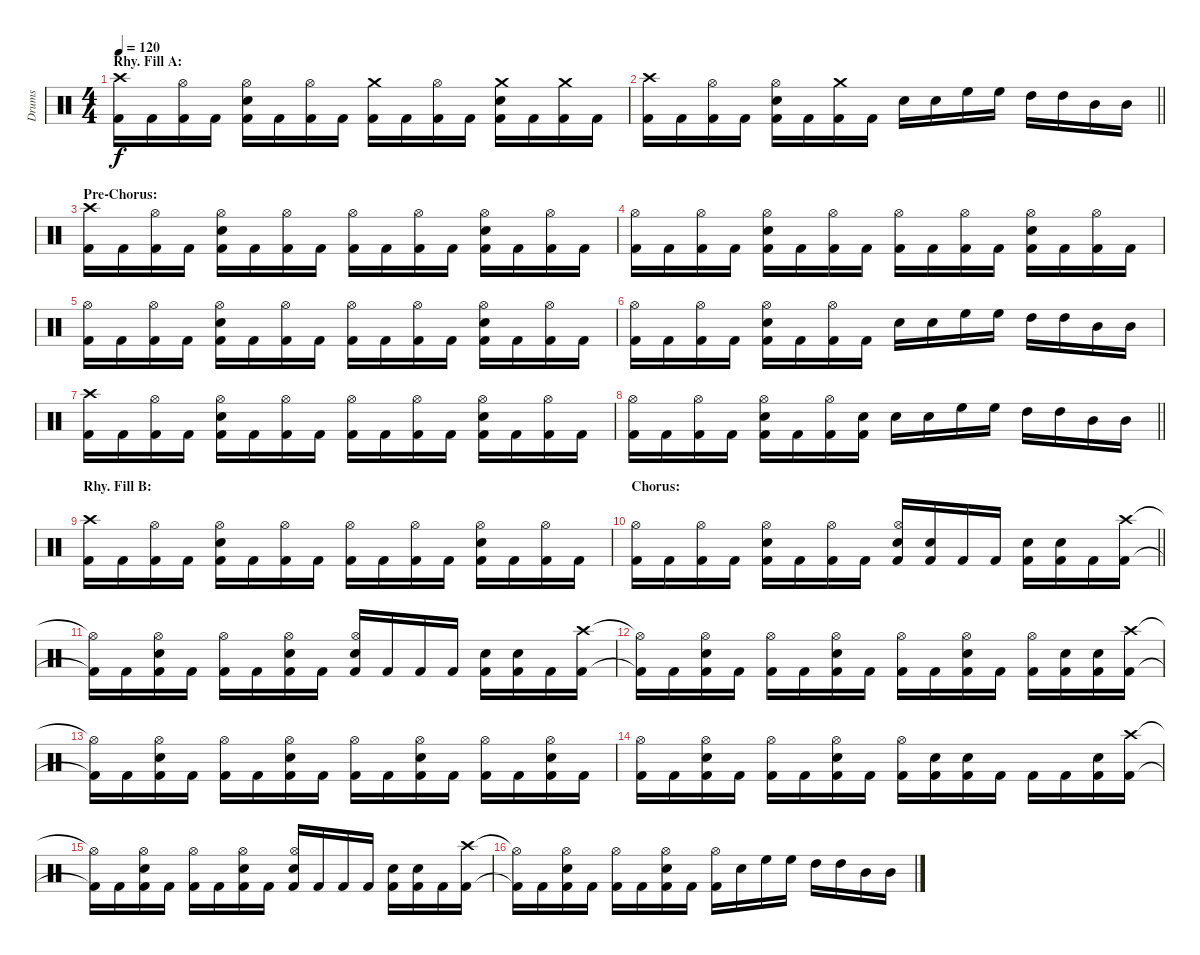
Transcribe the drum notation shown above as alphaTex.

\track ("Drums" "Drums") {instrument percussion}
\staff {score}
\articulation defaults
\ts (4 4)
\section ("" "Rhy. Fill A:")
\tempo 120
\clef neutral
\ks c
("Crash high (hit)" "Kick (hit) 2").16{dy f} "Kick (hit) 2".16 ("Hi-Hat (open)" "Kick (hit) 2").16 "Kick (hit) 2".16 ("Hi-Hat (open)" "Electric Snare (hit)" "Kick (hit) 2").16 "Kick (hit) 2".16 ("Hi-Hat (open)" "Kick (hit) 2").16 "Kick (hit) 2".16 ("Crash medium (hit)" "Kick (hit) 2").16 "Kick (hit) 2".16 ("Hi-Hat (open)" "Kick (hit) 2").16 "Kick (hit) 2".16 ("Crash medium (hit)" "Electric Snare (hit)" "Kick (hit) 2").16 "Kick (hit) 2".16 ("Crash medium (hit)" "Kick (hit) 2").16 "Kick (hit) 2".16 |
\barLineRight lightlight
("Crash high (hit)" "Kick (hit) 2").16 "Kick (hit) 2".16 ("Hi-Hat (open)" "Kick (hit) 2").16 "Kick (hit) 2".16 ("Hi-Hat (open)" "Electric Snare (hit)" "Kick (hit) 2").16 "Kick (hit) 2".16 ("Crash medium (hit)" "Kick (hit) 2").16 "Kick (hit) 2".16 "Electric Snare (hit)".16 "Electric Snare (hit)".16 "High Floor Tom (hit)".16 "High Floor Tom (hit)".16 "High Tom (hit)".16 "High Tom (hit)".16 "Mid Tom (hit)".16 "Mid Tom (hit)".16 |
\section ("" "Pre-Chorus:")
("Crash high (hit)" "Kick (hit) 2").16 "Kick (hit) 2".16 ("Hi-Hat (open)" "Kick (hit) 2").16 "Kick (hit) 2".16 ("Hi-Hat (open)" "Electric Snare (hit)" "Kick (hit) 2").16 "Kick (hit) 2".16 ("Hi-Hat (open)" "Kick (hit) 2").16 "Kick (hit) 2".16 ("Hi-Hat (open)" "Kick (hit) 2").16 "Kick (hit) 2".16 ("Hi-Hat (open)" "Kick (hit) 2").16 "Kick (hit) 2".16 ("Hi-Hat (open)" "Electric Snare (hit)" "Kick (hit) 2").16 "Kick (hit) 2".16 ("Hi-Hat (open)" "Kick (hit) 2").16 "Kick (hit) 2".16 |
("Hi-Hat (open)" "Kick (hit) 2").16 "Kick (hit) 2".16 ("Hi-Hat (open)" "Kick (hit) 2").16 "Kick (hit) 2".16 ("Hi-Hat (open)" "Electric Snare (hit)" "Kick (hit) 2").16 "Kick (hit) 2".16 ("Hi-Hat (open)" "Kick (hit) 2").16 "Kick (hit) 2".16 ("Hi-Hat (open)" "Kick (hit) 2").16 "Kick (hit) 2".16 ("Hi-Hat (open)" "Kick (hit) 2").16 "Kick (hit) 2".16 ("Hi-Hat (open)" "Electric Snare (hit)" "Kick (hit) 2").16 "Kick (hit) 2".16 ("Hi-Hat (open)" "Kick (hit) 2").16 "Kick (hit) 2".16 |
("Hi-Hat (open)" "Kick (hit) 2").16 "Kick (hit) 2".16 ("Hi-Hat (open)" "Kick (hit) 2").16 "Kick (hit) 2".16 ("Hi-Hat (open)" "Electric Snare (hit)" "Kick (hit) 2").16 "Kick (hit) 2".16 ("Hi-Hat (open)" "Kick (hit) 2").16 "Kick (hit) 2".16 ("Hi-Hat (open)" "Kick (hit) 2").16 "Kick (hit) 2".16 ("Hi-Hat (open)" "Kick (hit) 2").16 "Kick (hit) 2".16 ("Hi-Hat (open)" "Electric Snare (hit)" "Kick (hit) 2").16 "Kick (hit) 2".16 ("Hi-Hat (open)" "Kick (hit) 2").16 "Kick (hit) 2".16 |
("Hi-Hat (open)" "Kick (hit) 2").16 "Kick (hit) 2".16 ("Hi-Hat (open)" "Kick (hit) 2").16 "Kick (hit) 2".16 ("Hi-Hat (open)" "Electric Snare (hit)" "Kick (hit) 2").16 "Kick (hit) 2".16 ("Hi-Hat (open)" "Kick (hit) 2").16 "Kick (hit) 2".16 "Electric Snare (hit)".16 "Electric Snare (hit)".16 "High Floor Tom (hit)".16 "High Floor Tom (hit)".16 "High Tom (hit)".16 "High Tom (hit)".16 "Mid Tom (hit)".16 "Mid Tom (hit)".16 |
("Crash high (hit)" "Kick (hit) 2").16 "Kick (hit) 2".16 ("Hi-Hat (open)" "Kick (hit) 2").16 "Kick (hit) 2".16 ("Hi-Hat (open)" "Electric Snare (hit)" "Kick (hit) 2").16 "Kick (hit) 2".16 ("Hi-Hat (open)" "Kick (hit) 2").16 "Kick (hit) 2".16 ("Hi-Hat (open)" "Kick (hit) 2").16 "Kick (hit) 2".16 ("Hi-Hat (open)" "Kick (hit) 2").16 "Kick (hit) 2".16 ("Hi-Hat (open)" "Electric Snare (hit)" "Kick (hit) 2").16 "Kick (hit) 2".16 ("Hi-Hat (open)" "Kick (hit) 2").16 "Kick (hit) 2".16 |
\barLineRight lightlight
("Hi-Hat (open)" "Kick (hit) 2").16 "Kick (hit) 2".16 ("Hi-Hat (open)" "Kick (hit) 2").16 "Kick (hit) 2".16 ("Hi-Hat (open)" "Electric Snare (hit)" "Kick (hit) 2").16 "Kick (hit) 2".16 ("Hi-Hat (open)" "Kick (hit) 2").16 ("Electric Snare (hit)" "Kick (hit) 2").16 "Electric Snare (hit)".16 "Electric Snare (hit)".16 "High Floor Tom (hit)".16 "High Floor Tom (hit)".16 "High Tom (hit)".16 "High Tom (hit)".16 "Mid Tom (hit)".16 "Mid Tom (hit)".16 |
\section ("" "Rhy. Fill B:")
("Crash high (hit)" "Kick (hit) 2").16 "Kick (hit) 2".16 ("Hi-Hat (open)" "Kick (hit) 2").16 "Kick (hit) 2".16 ("Hi-Hat (open)" "Electric Snare (hit)" "Kick (hit) 2").16 "Kick (hit) 2".16 ("Hi-Hat (open)" "Kick (hit) 2").16 "Kick (hit) 2".16 ("Hi-Hat (open)" "Kick (hit) 2").16 "Kick (hit) 2".16 ("Hi-Hat (open)" "Kick (hit) 2").16 "Kick (hit) 2".16 ("Hi-Hat (open)" "Electric Snare (hit)" "Kick (hit) 2").16 "Kick (hit) 2".16 ("Hi-Hat (open)" "Kick (hit) 2").16 "Kick (hit) 2".16 |
\section ("" "Chorus:")
\barLineRight lightlight
("Hi-Hat (open)" "Kick (hit) 2").16 "Kick (hit) 2".16 ("Hi-Hat (open)" "Kick (hit) 2").16 "Kick (hit) 2".16 ("Hi-Hat (open)" "Electric Snare (hit)" "Kick (hit) 2").16 "Kick (hit) 2".16 ("Hi-Hat (open)" "Kick (hit) 2").16 "Kick (hit) 2".16 ("Hi-Hat (open)" "Electric Snare (hit)" "Kick (hit) 2").16 ("Electric Snare (hit)" "Kick (hit) 2").16 "Kick (hit) 2".16 "Kick (hit) 2".16 ("Electric Snare (hit)" "Kick (hit) 2").16 ("Electric Snare (hit)" "Kick (hit) 2").16 "Kick (hit) 2".16 ("Crash high (hit)" "Kick (hit) 2").16 |
("Hi-Hat (open)"{t} "Kick (hit) 2"{t}).16 "Kick (hit) 2".16 ("Hi-Hat (open)" "Electric Snare (hit)" "Kick (hit) 2").16 "Kick (hit) 2".16 ("Hi-Hat (open)" "Kick (hit) 2").16 "Kick (hit) 2".16 ("Hi-Hat (open)" "Electric Snare (hit)" "Kick (hit) 2").16 "Kick (hit) 2".16 ("Hi-Hat (open)" "Electric Snare (hit)" "Kick (hit) 2").16 "Kick (hit) 2".16 "Kick (hit) 2".16 "Kick (hit) 2".16 ("Electric Snare (hit)" "Kick (hit) 2").16 ("Electric Snare (hit)" "Kick (hit) 2").16 "Kick (hit) 2".16 ("Crash high (hit)" "Kick (hit) 2").16 |
("Hi-Hat (open)"{t} "Kick (hit) 2"{t}).16 "Kick (hit) 2".16 ("Hi-Hat (open)" "Electric Snare (hit)" "Kick (hit) 2").16 "Kick (hit) 2".16 ("Hi-Hat (open)" "Kick (hit) 2").16 "Kick (hit) 2".16 ("Hi-Hat (open)" "Electric Snare (hit)" "Kick (hit) 2").16 "Kick (hit) 2".16 ("Hi-Hat (open)" "Kick (hit) 2").16 "Kick (hit) 2".16 ("Hi-Hat (open)" "Electric Snare (hit)" "Kick (hit) 2").16 "Kick (hit) 2".16 ("Hi-Hat (open)" "Kick (hit) 2").16 ("Electric Snare (hit)" "Kick (hit) 2").16 ("Electric Snare (hit)" "Kick (hit) 2").16 ("Crash high (hit)" "Kick (hit) 2").16 |
("Hi-Hat (open)"{t} "Kick (hit) 2"{t}).16 "Kick (hit) 2".16 ("Hi-Hat (open)" "Electric Snare (hit)" "Kick (hit) 2").16 "Kick (hit) 2".16 ("Hi-Hat (open)" "Kick (hit) 2").16 "Kick (hit) 2".16 ("Hi-Hat (open)" "Electric Snare (hit)" "Kick (hit) 2").16 "Kick (hit) 2".16 ("Hi-Hat (open)" "Kick (hit) 2").16 "Kick (hit) 2".16 ("Hi-Hat (open)" "Electric Snare (hit)" "Kick (hit) 2").16 "Kick (hit) 2".16 ("Hi-Hat (open)" "Kick (hit) 2").16 "Kick (hit) 2".16 ("Hi-Hat (open)" "Electric Snare (hit)" "Kick (hit) 2").16 "Kick (hit) 2".16 |
("Hi-Hat (open)" "Kick (hit) 2").16 "Kick (hit) 2".16 ("Hi-Hat (open)" "Electric Snare (hit)" "Kick (hit) 2").16 "Kick (hit) 2".16 ("Hi-Hat (open)" "Kick (hit) 2").16 "Kick (hit) 2".16 ("Hi-Hat (open)" "Electric Snare (hit)" "Kick (hit) 2").16 "Kick (hit) 2".16 ("Hi-Hat (open)" "Kick (hit) 2").16 ("Electric Snare (hit)" "Kick (hit) 2").16 ("Electric Snare (hit)" "Kick (hit) 2").16 "Kick (hit) 2".16 "Kick (hit) 2".16 "Kick (hit) 2".16 ("Electric Snare (hit)" "Kick (hit) 2").16 ("Crash high (hit)" "Kick (hit) 2").16 |
("Hi-Hat (open)"{t} "Kick (hit) 2"{t}).16 "Kick (hit) 2".16 ("Hi-Hat (open)" "Electric Snare (hit)" "Kick (hit) 2").16 "Kick (hit) 2".16 ("Hi-Hat (open)" "Kick (hit) 2").16 "Kick (hit) 2".16 ("Hi-Hat (open)" "Electric Snare (hit)" "Kick (hit) 2").16 "Kick (hit) 2".16 ("Hi-Hat (open)" "Electric Snare (hit)" "Kick (hit) 2").16 "Kick (hit) 2".16 "Kick (hit) 2".16 "Kick (hit) 2".16 ("Electric Snare (hit)" "Kick (hit) 2").16 ("Electric Snare (hit)" "Kick (hit) 2").16 "Kick (hit) 2".16 ("Crash high (hit)" "Kick (hit) 2").16 |
("Hi-Hat (open)"{t} "Kick (hit) 2"{t}).16 "Kick (hit) 2".16 ("Hi-Hat (open)" "Electric Snare (hit)" "Kick (hit) 2").16 "Kick (hit) 2".16 ("Hi-Hat (open)" "Kick (hit) 2").16 "Kick (hit) 2".16 ("Hi-Hat (open)" "Electric Snare (hit)" "Kick (hit) 2").16 "Kick (hit) 2".16 ("Hi-Hat (open)" "Kick (hit) 2").16 "Electric Snare (hit)".16 "High Floor Tom (hit)".16 "High Floor Tom (hit)".16 "High Tom (hit)".16 "High Tom (hit)".16 "Mid Tom (hit)".16 "Mid Tom (hit)".16
